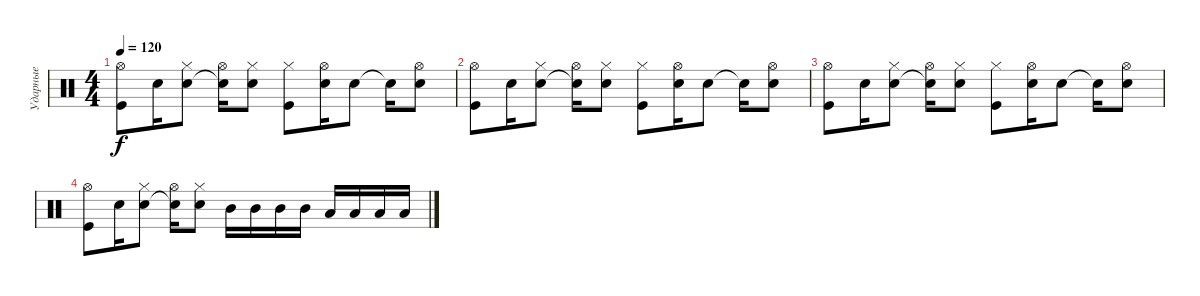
\track ("Ударные" "Ударные") {instrument percussion}
\staff {score}
\articulation defaults
\ts (4 4)
\tempo 120
\clef neutral
\ks c
("Hi-Hat (open)" "Kick (hit)").8{dy f} "Electric Snare (hit)".16 ("Hi-Hat (closed)" "Electric Snare (hit)").8 ("Hi-Hat (open)" "Snare (hit)"{t}).16 ("Hi-Hat (closed)" "Electric Snare (hit)").8 ("Hi-Hat (closed)" "Kick (hit)").8 ("Hi-Hat (open)" "Electric Snare (hit)").16 "Electric Snare (hit)".8 "Snare (hit)"{t}.16 ("Hi-Hat (open)" "Electric Snare (hit)").8 |
("Hi-Hat (open)" "Kick (hit)").8 "Electric Snare (hit)".16 ("Hi-Hat (closed)" "Electric Snare (hit)").8 ("Hi-Hat (open)" "Snare (hit)"{t}).16 ("Hi-Hat (closed)" "Electric Snare (hit)").8 ("Hi-Hat (closed)" "Kick (hit)").8 ("Hi-Hat (open)" "Electric Snare (hit)").16 "Electric Snare (hit)".8 "Snare (hit)"{t}.16 ("Hi-Hat (open)" "Electric Snare (hit)").8 |
("Hi-Hat (open)" "Kick (hit)").8 "Electric Snare (hit)".16 ("Hi-Hat (closed)" "Electric Snare (hit)").8 ("Hi-Hat (open)" "Snare (hit)"{t}).16 ("Hi-Hat (closed)" "Electric Snare (hit)").8 ("Hi-Hat (closed)" "Kick (hit)").8 ("Hi-Hat (open)" "Electric Snare (hit)").16 "Electric Snare (hit)".8 "Snare (hit)"{t}.16 ("Hi-Hat (open)" "Electric Snare (hit)").8 |
("Hi-Hat (open)" "Kick (hit)").8 "Electric Snare (hit)".16 ("Hi-Hat (closed)" "Electric Snare (hit)").8 ("Hi-Hat (open)" "Snare (hit)"{t}).16 ("Hi-Hat (closed)" "Electric Snare (hit)").8 "Mid Tom (hit)".16 "Mid Tom (hit)".16 "Mid Tom (hit)".16 "Mid Tom (hit)".16 "Low Tom (hit)".16 "Low Tom (hit)".16 "Low Tom (hit)".16 "Low Tom (hit)".16
